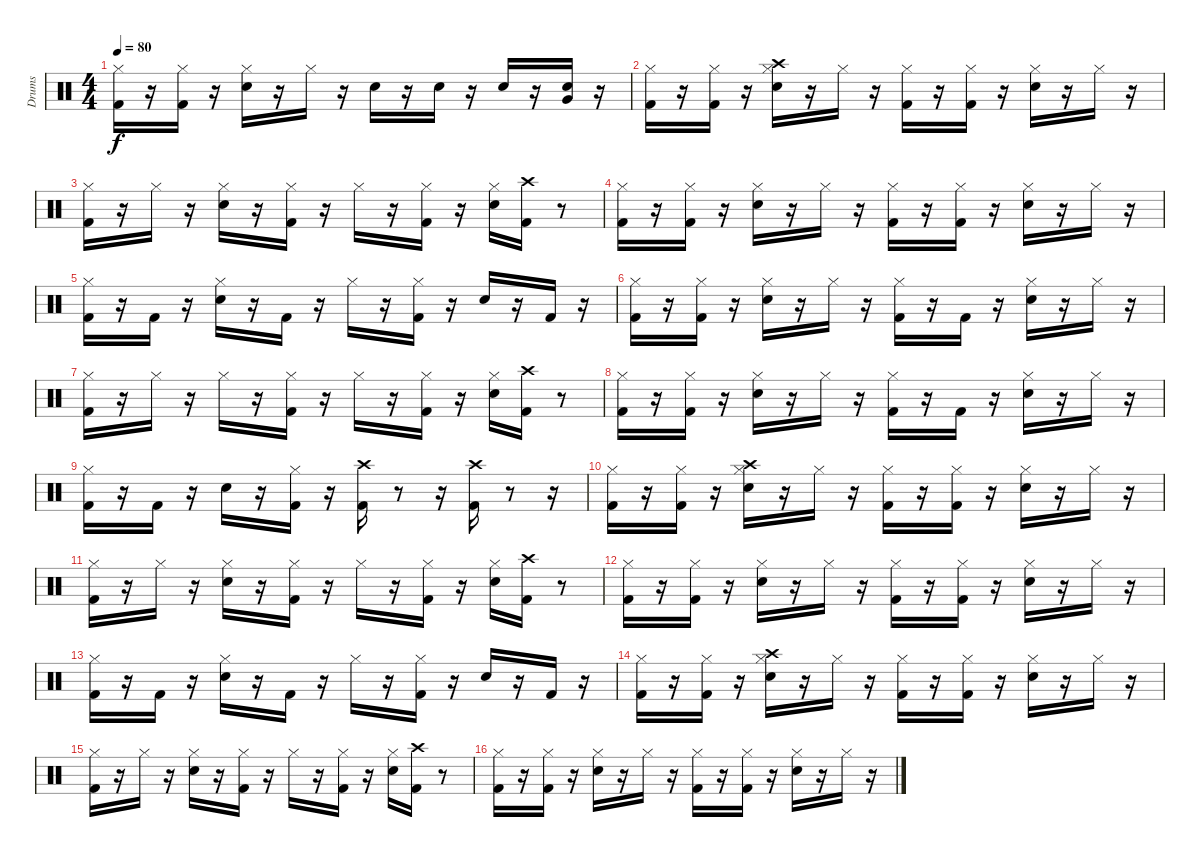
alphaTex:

\track ("Drums" "Drums") {instrument percussion}
\staff {score}
\articulation defaults
\ts (4 4)
\tempo 80
\clef neutral
\ks c
("Kick (hit) 2" "Hi-Hat (closed)").16{dy f} r.16 ("Kick (hit) 2" "Hi-Hat (closed)").16 r.16 ("Snare (hit) 2" "Hi-Hat (closed)").16 r.16 "Hi-Hat (closed)".16 r.16 "Snare (hit) 2".16 r.16 "Snare (hit) 2".16 r.16 "Snare (hit) 2".16 r.16 ("Snare (hit) 2" "Very Low Tom (hit)").16 r.16 |
("Kick (hit) 2" "Hi-Hat (closed)").16 r.16 ("Kick (hit) 2" "Hi-Hat (closed)").16 r.16 ("Snare (hit) 2" "Hi-Hat (closed)" "Crash high (hit)").16 r.16 "Hi-Hat (closed)".16 r.16 ("Kick (hit) 2" "Hi-Hat (closed)").16 r.16 ("Kick (hit) 2" "Hi-Hat (closed)").16 r.16 ("Snare (hit) 2" "Hi-Hat (closed)").16 r.16 "Hi-Hat (closed)".16 r.16 |
("Kick (hit) 2" "Hi-Hat (closed)").16 r.16 "Hi-Hat (closed)".16 r.16 ("Snare (hit) 2" "Hi-Hat (closed)").16 r.16 ("Kick (hit) 2" "Hi-Hat (closed)").16 r.16 "Hi-Hat (closed)".16 r.16 ("Kick (hit) 2" "Hi-Hat (closed)").16 r.16 ("Snare (hit) 2" "Hi-Hat (closed)").16 ("Kick (hit) 2" "Crash high (hit)").16 r.8 |
("Kick (hit) 2" "Hi-Hat (closed)").16 r.16 ("Kick (hit) 2" "Hi-Hat (closed)").16 r.16 ("Snare (hit) 2" "Hi-Hat (closed)").16 r.16 "Hi-Hat (closed)".16 r.16 ("Kick (hit) 2" "Hi-Hat (closed)").16 r.16 ("Kick (hit) 2" "Hi-Hat (closed)").16 r.16 ("Snare (hit) 2" "Hi-Hat (closed)").16 r.16 "Hi-Hat (closed)".16 r.16 |
("Kick (hit) 2" "Hi-Hat (closed)").16 r.16 "Kick (hit) 2".16 r.16 ("Snare (hit) 2" "Hi-Hat (closed)").16 r.16 "Kick (hit) 2".16 r.16 "Hi-Hat (closed)".16 r.16 ("Kick (hit) 2" "Hi-Hat (closed)").16 r.16 "Snare (hit) 2".16 r.16 "Kick (hit) 2".16 r.16 |
("Kick (hit) 2" "Hi-Hat (closed)").16 r.16 ("Kick (hit) 2" "Hi-Hat (closed)").16 r.16 ("Snare (hit) 2" "Hi-Hat (closed)").16 r.16 "Hi-Hat (closed)".16 r.16 ("Kick (hit) 2" "Hi-Hat (closed)").16 r.16 "Kick (hit) 2".16 r.16 ("Snare (hit) 2" "Hi-Hat (closed)").16 r.16 "Hi-Hat (closed)".16 r.16 |
("Kick (hit) 2" "Hi-Hat (closed)").16 r.16 "Hi-Hat (closed)".16 r.16 "Hi-Hat (closed)".16 r.16 ("Kick (hit) 2" "Hi-Hat (closed)").16 r.16 "Hi-Hat (closed)".16 r.16 ("Kick (hit) 2" "Hi-Hat (closed)").16 r.16 ("Snare (hit) 2" "Hi-Hat (closed)").16 ("Kick (hit) 2" "Crash high (hit)").16 r.8 |
("Kick (hit) 2" "Hi-Hat (closed)").16 r.16 ("Kick (hit) 2" "Hi-Hat (closed)").16 r.16 ("Snare (hit) 2" "Hi-Hat (closed)").16 r.16 "Hi-Hat (closed)".16 r.16 ("Kick (hit) 2" "Hi-Hat (closed)").16 r.16 "Kick (hit) 2".16 r.16 ("Snare (hit) 2" "Hi-Hat (closed)").16 r.16 "Hi-Hat (closed)".16 r.16 |
("Kick (hit) 2" "Hi-Hat (closed)").16 r.16 "Kick (hit) 2".16 r.16 "Snare (hit) 2".16 r.16 ("Kick (hit) 2" "Hi-Hat (closed)").16 r.16 ("Kick (hit) 2" "Crash high (hit)").16 r.8 r.16 ("Kick (hit) 2" "Crash high (hit)").16 r.8 r.16 |
("Kick (hit) 2" "Hi-Hat (closed)").16 r.16 ("Kick (hit) 2" "Hi-Hat (closed)").16 r.16 ("Snare (hit) 2" "Hi-Hat (closed)" "Crash high (hit)").16 r.16 "Hi-Hat (closed)".16 r.16 ("Kick (hit) 2" "Hi-Hat (closed)").16 r.16 ("Kick (hit) 2" "Hi-Hat (closed)").16 r.16 ("Snare (hit) 2" "Hi-Hat (closed)").16 r.16 "Hi-Hat (closed)".16 r.16 |
("Kick (hit) 2" "Hi-Hat (closed)").16 r.16 "Hi-Hat (closed)".16 r.16 ("Snare (hit) 2" "Hi-Hat (closed)").16 r.16 ("Kick (hit) 2" "Hi-Hat (closed)").16 r.16 "Hi-Hat (closed)".16 r.16 ("Kick (hit) 2" "Hi-Hat (closed)").16 r.16 ("Snare (hit) 2" "Hi-Hat (closed)").16 ("Kick (hit) 2" "Crash high (hit)").16 r.8 |
("Kick (hit) 2" "Hi-Hat (closed)").16 r.16 ("Kick (hit) 2" "Hi-Hat (closed)").16 r.16 ("Snare (hit) 2" "Hi-Hat (closed)").16 r.16 "Hi-Hat (closed)".16 r.16 ("Kick (hit) 2" "Hi-Hat (closed)").16 r.16 ("Kick (hit) 2" "Hi-Hat (closed)").16 r.16 ("Snare (hit) 2" "Hi-Hat (closed)").16 r.16 "Hi-Hat (closed)".16 r.16 |
("Kick (hit) 2" "Hi-Hat (closed)").16 r.16 "Kick (hit) 2".16 r.16 ("Snare (hit) 2" "Hi-Hat (closed)").16 r.16 "Kick (hit) 2".16 r.16 "Hi-Hat (closed)".16 r.16 ("Kick (hit) 2" "Hi-Hat (closed)").16 r.16 "Snare (hit) 2".16 r.16 "Kick (hit) 2".16 r.16 |
("Kick (hit) 2" "Hi-Hat (closed)").16 r.16 ("Kick (hit) 2" "Hi-Hat (closed)").16 r.16 ("Snare (hit) 2" "Hi-Hat (closed)" "Crash high (hit)").16 r.16 "Hi-Hat (closed)".16 r.16 ("Kick (hit) 2" "Hi-Hat (closed)").16 r.16 ("Kick (hit) 2" "Hi-Hat (closed)").16 r.16 ("Snare (hit) 2" "Hi-Hat (closed)").16 r.16 "Hi-Hat (closed)".16 r.16 |
("Kick (hit) 2" "Hi-Hat (closed)").16 r.16 "Hi-Hat (closed)".16 r.16 ("Snare (hit) 2" "Hi-Hat (closed)").16 r.16 ("Kick (hit) 2" "Hi-Hat (closed)").16 r.16 "Hi-Hat (closed)".16 r.16 ("Kick (hit) 2" "Hi-Hat (closed)").16 r.16 ("Snare (hit) 2" "Hi-Hat (closed)").16 ("Kick (hit) 2" "Crash high (hit)").16 r.8 |
("Kick (hit) 2" "Hi-Hat (closed)").16 r.16 ("Kick (hit) 2" "Hi-Hat (closed)").16 r.16 ("Snare (hit) 2" "Hi-Hat (closed)").16 r.16 "Hi-Hat (closed)".16 r.16 ("Kick (hit) 2" "Hi-Hat (closed)").16 r.16 ("Kick (hit) 2" "Hi-Hat (closed)").16 r.16 ("Snare (hit) 2" "Hi-Hat (closed)").16 r.16 "Hi-Hat (closed)".16 r.16
